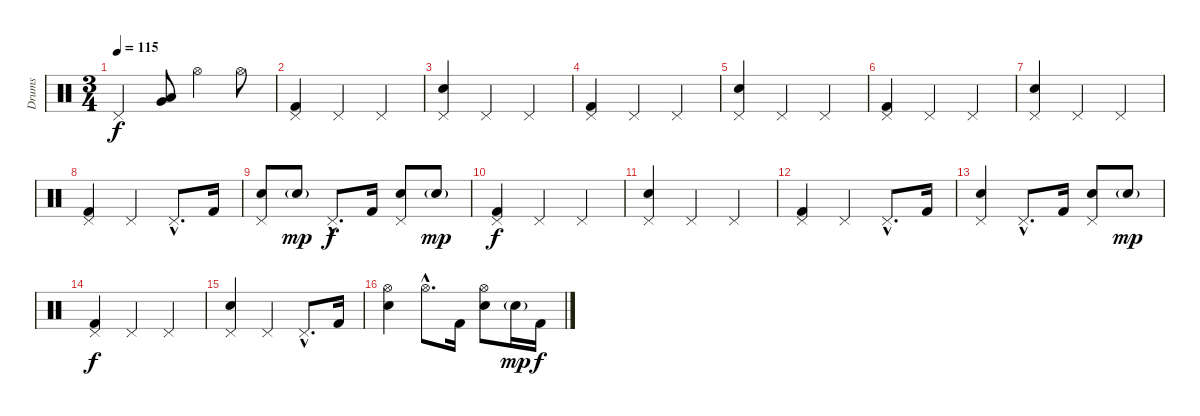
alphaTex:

\track ("Drums" "Drums") {instrument percussion}
\staff {score}
\articulation defaults
\ts (3 4)
\tempo 115
\clef neutral
\ks c "Pedal Hi-Hat (hit)".4{dy f}
("Low Tom (hit)" "Very Low Tom (hit)").8 "Hi-Hat (open)".4 "Hi-Hat (open)".8 |
\section ("" "")
("Pedal Hi-Hat (hit)" "Kick (hit) 2").4 "Pedal Hi-Hat (hit)".4 "Pedal Hi-Hat (hit)".4 |
("Pedal Hi-Hat (hit)" "Electric Snare (hit)").4 "Pedal Hi-Hat (hit)".4 "Pedal Hi-Hat (hit)".4 |
("Pedal Hi-Hat (hit)" "Kick (hit) 2").4 "Pedal Hi-Hat (hit)".4 "Pedal Hi-Hat (hit)".4 |
("Pedal Hi-Hat (hit)" "Electric Snare (hit)").4 "Pedal Hi-Hat (hit)".4 "Pedal Hi-Hat (hit)".4 |
("Pedal Hi-Hat (hit)" "Kick (hit) 2").4 "Pedal Hi-Hat (hit)".4 "Pedal Hi-Hat (hit)".4 |
("Pedal Hi-Hat (hit)" "Electric Snare (hit)").4 "Pedal Hi-Hat (hit)".4 "Pedal Hi-Hat (hit)".4 |
("Pedal Hi-Hat (hit)" "Kick (hit) 2").4 "Pedal Hi-Hat (hit)".4 "Pedal Hi-Hat (hit)"{hac}.8{d} "Kick (hit) 2".16 |
("Pedal Hi-Hat (hit)" "Electric Snare (hit)").8 "Electric Snare (hit)"{g}.8{dy mp} "Pedal Hi-Hat (hit)"{hac}.8{d dy f} "Kick (hit) 2".16 ("Pedal Hi-Hat (hit)" "Electric Snare (hit)").8 "Electric Snare (hit)"{g}.8{dy mp} |
("Pedal Hi-Hat (hit)" "Kick (hit) 2").4{dy f} "Pedal Hi-Hat (hit)".4 "Pedal Hi-Hat (hit)".4 |
("Pedal Hi-Hat (hit)" "Electric Snare (hit)").4 "Pedal Hi-Hat (hit)".4 "Pedal Hi-Hat (hit)".4 |
("Pedal Hi-Hat (hit)" "Kick (hit) 2").4 "Pedal Hi-Hat (hit)".4 "Pedal Hi-Hat (hit)"{hac}.8{d} "Kick (hit) 2".16 |
("Pedal Hi-Hat (hit)" "Electric Snare (hit)").4 "Pedal Hi-Hat (hit)"{hac}.8{d} "Kick (hit) 2".16 ("Pedal Hi-Hat (hit)" "Electric Snare (hit)").8 "Electric Snare (hit)"{g}.8{dy mp} |
("Pedal Hi-Hat (hit)" "Kick (hit) 2").4{dy f} "Pedal Hi-Hat (hit)".4 "Pedal Hi-Hat (hit)".4 |
("Pedal Hi-Hat (hit)" "Electric Snare (hit)").4 "Pedal Hi-Hat (hit)".4 "Pedal Hi-Hat (hit)"{hac}.8{d} "Kick (hit) 2".16 |
("Hi-Hat (open)" "Electric Snare (hit)").4 "Hi-Hat (open)"{hac}.8{d} "Kick (hit) 2".16 ("Hi-Hat (open)" "Electric Snare (hit)").8 "Electric Snare (hit)"{g}.16{dy mp} "Kick (hit) 2".16{dy f}
